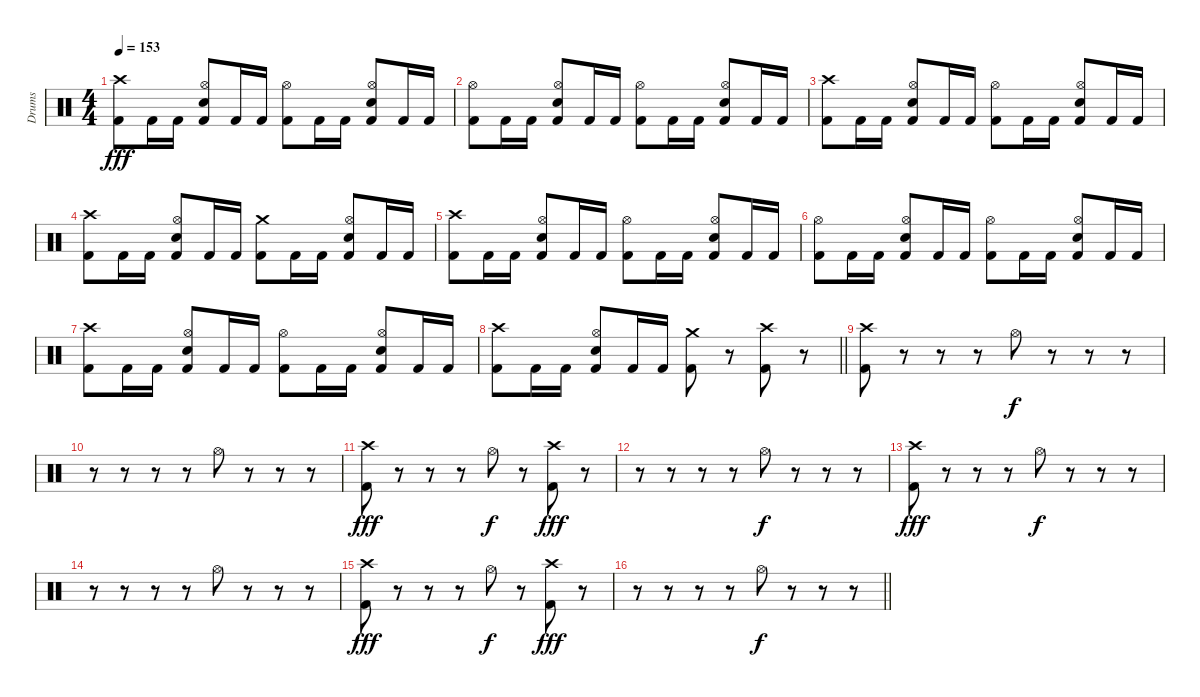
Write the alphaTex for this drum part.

\track ("Drums" "Drums") {instrument percussion}
\staff {score}
\articulation defaults
\ts (4 4)
\tempo 153
\clef neutral
\ks c
("Crash high (hit)" "Kick (hit) 2").8{dy fff} "Kick (hit) 2".16 "Kick (hit) 2".16 ("Hi-Hat (open)" "Electric Snare (hit)" "Kick (hit) 2").8 "Kick (hit) 2".16 "Kick (hit) 2".16 ("Hi-Hat (open)" "Kick (hit) 2").8 "Kick (hit) 2".16 "Kick (hit) 2".16 ("Hi-Hat (open)" "Electric Snare (hit)" "Kick (hit) 2").8 "Kick (hit) 2".16 "Kick (hit) 2".16 |
("Hi-Hat (open)" "Kick (hit) 2").8 "Kick (hit) 2".16 "Kick (hit) 2".16 ("Hi-Hat (open)" "Electric Snare (hit)" "Kick (hit) 2").8 "Kick (hit) 2".16 "Kick (hit) 2".16 ("Hi-Hat (open)" "Kick (hit) 2").8 "Kick (hit) 2".16 "Kick (hit) 2".16 ("Hi-Hat (open)" "Electric Snare (hit)" "Kick (hit) 2").8 "Kick (hit) 2".16 "Kick (hit) 2".16 |
("Crash high (hit)" "Kick (hit) 2").8 "Kick (hit) 2".16 "Kick (hit) 2".16 ("Hi-Hat (open)" "Electric Snare (hit)" "Kick (hit) 2").8 "Kick (hit) 2".16 "Kick (hit) 2".16 ("Hi-Hat (open)" "Kick (hit) 2").8 "Kick (hit) 2".16 "Kick (hit) 2".16 ("Hi-Hat (open)" "Electric Snare (hit)" "Kick (hit) 2").8 "Kick (hit) 2".16 "Kick (hit) 2".16 |
("Crash high (hit)" "Kick (hit) 2").8 "Kick (hit) 2".16 "Kick (hit) 2".16 ("Hi-Hat (open)" "Electric Snare (hit)" "Kick (hit) 2").8 "Kick (hit) 2".16 "Kick (hit) 2".16 ("Crash medium (hit)" "Kick (hit) 2").8 "Kick (hit) 2".16 "Kick (hit) 2".16 ("Hi-Hat (open)" "Electric Snare (hit)" "Kick (hit) 2").8 "Kick (hit) 2".16 "Kick (hit) 2".16 |
("Crash high (hit)" "Kick (hit) 2").8 "Kick (hit) 2".16 "Kick (hit) 2".16 ("Hi-Hat (open)" "Electric Snare (hit)" "Kick (hit) 2").8 "Kick (hit) 2".16 "Kick (hit) 2".16 ("Hi-Hat (open)" "Kick (hit) 2").8 "Kick (hit) 2".16 "Kick (hit) 2".16 ("Hi-Hat (open)" "Electric Snare (hit)" "Kick (hit) 2").8 "Kick (hit) 2".16 "Kick (hit) 2".16 |
("Hi-Hat (open)" "Kick (hit) 2").8 "Kick (hit) 2".16 "Kick (hit) 2".16 ("Hi-Hat (open)" "Electric Snare (hit)" "Kick (hit) 2").8 "Kick (hit) 2".16 "Kick (hit) 2".16 ("Hi-Hat (open)" "Kick (hit) 2").8 "Kick (hit) 2".16 "Kick (hit) 2".16 ("Hi-Hat (open)" "Electric Snare (hit)" "Kick (hit) 2").8 "Kick (hit) 2".16 "Kick (hit) 2".16 |
("Crash high (hit)" "Kick (hit) 2").8 "Kick (hit) 2".16 "Kick (hit) 2".16 ("Hi-Hat (open)" "Electric Snare (hit)" "Kick (hit) 2").8 "Kick (hit) 2".16 "Kick (hit) 2".16 ("Hi-Hat (open)" "Kick (hit) 2").8 "Kick (hit) 2".16 "Kick (hit) 2".16 ("Hi-Hat (open)" "Electric Snare (hit)" "Kick (hit) 2").8 "Kick (hit) 2".16 "Kick (hit) 2".16 |
\barLineRight lightlight
("Crash high (hit)" "Kick (hit) 2").8 "Kick (hit) 2".16 "Kick (hit) 2".16 ("Hi-Hat (open)" "Electric Snare (hit)" "Kick (hit) 2").8 "Kick (hit) 2".16 "Kick (hit) 2".16 ("Crash medium (hit)" "Kick (hit) 2").8 r.8 ("Crash high (hit)" "Kick (hit) 2").8 r.8 |
\section ("" "")
("Crash high (hit)" "Kick (hit) 2").8 r.8 r.8 r.8 "Hi-Hat (open)".8{dy f} r.8 r.8 r.8 |
r.8 r.8 r.8 r.8 "Hi-Hat (open)".8 r.8 r.8 r.8 |
("Crash high (hit)" "Kick (hit) 2").8{dy fff} r.8 r.8 r.8 "Hi-Hat (open)".8{dy f} r.8 ("Crash high (hit)" "Kick (hit) 2").8{dy fff} r.8 |
r.8 r.8 r.8 r.8 "Hi-Hat (open)".8{dy f} r.8 r.8 r.8 |
("Crash high (hit)" "Kick (hit) 2").8{dy fff} r.8 r.8 r.8 "Hi-Hat (open)".8{dy f} r.8 r.8 r.8 |
r.8 r.8 r.8 r.8 "Hi-Hat (open)".8 r.8 r.8 r.8 |
("Crash high (hit)" "Kick (hit) 2").8{dy fff} r.8 r.8 r.8 "Hi-Hat (open)".8{dy f} r.8 ("Crash high (hit)" "Kick (hit) 2").8{dy fff} r.8 |
\barLineRight lightlight
r.8 r.8 r.8 r.8 "Hi-Hat (open)".8{dy f} r.8 r.8 r.8
